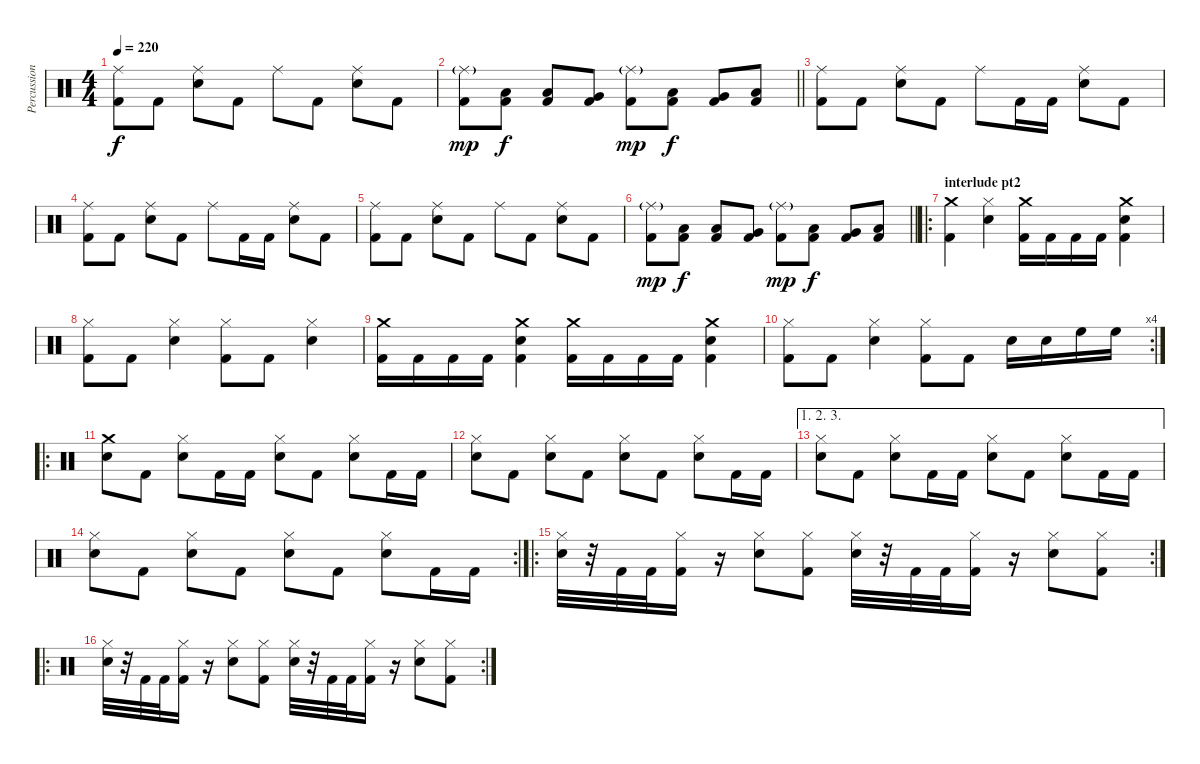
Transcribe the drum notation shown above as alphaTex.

\track ("Percussion" "Percussion") {instrument percussion}
\staff {score}
\articulation defaults
\ts (4 4)
\tempo 220
\clef neutral
\ks c
("Ride (middle)" "Kick (hit) 2").8{dy f} "Kick (hit) 2".8 ("Ride (middle)" "Electric Snare (hit)").8 "Kick (hit) 2".8 "Ride (middle)".8 "Kick (hit) 2".8 ("Ride (middle)" "Electric Snare (hit)").8 "Kick (hit) 2".8 |
\barLineRight lightlight
("Ride (middle)"{g} "Kick (hit) 2").8{dy mp} ("Low Tom (hit)" "Kick (hit) 2").8{dy f} ("Low Tom (hit)" "Kick (hit) 2").8 ("Very Low Tom (hit)" "Kick (hit) 2").8 ("Ride (middle)"{g} "Kick (hit) 2").8{dy mp} ("Low Tom (hit)" "Kick (hit) 2").8{dy f} ("Very Low Tom (hit)" "Kick (hit) 2").8 ("Low Floor Tom (hit)" "Kick (hit) 2").8 |
("Ride (middle)" "Kick (hit) 2").8 "Kick (hit) 2".8 ("Ride (middle)" "Electric Snare (hit)").8 "Kick (hit) 2".8 "Ride (middle)".8 "Kick (hit) 2".16 "Kick (hit) 2".16 ("Ride (middle)" "Electric Snare (hit)").8 "Kick (hit) 2".8 |
("Ride (middle)" "Kick (hit) 2").8 "Kick (hit) 2".8 ("Ride (middle)" "Electric Snare (hit)").8 "Kick (hit) 2".8 "Ride (middle)".8 "Kick (hit) 2".16 "Kick (hit) 2".16 ("Ride (middle)" "Electric Snare (hit)").8 "Kick (hit) 2".8 |
("Ride (middle)" "Kick (hit) 2").8 "Kick (hit) 2".8 ("Ride (middle)" "Electric Snare (hit)").8 "Kick (hit) 2".8 "Ride (middle)".8 "Kick (hit) 2".8 ("Ride (middle)" "Electric Snare (hit)").8 "Kick (hit) 2".8 |
\barLineRight lightlight
("Ride (middle)"{g} "Kick (hit) 2").8{dy mp} ("Low Tom (hit)" "Kick (hit) 2").8{dy f} ("Low Tom (hit)" "Kick (hit) 2").8 ("Very Low Tom (hit)" "Kick (hit) 2").8 ("Ride (middle)"{g} "Kick (hit) 2").8{dy mp} ("Low Tom (hit)" "Kick (hit) 2").8{dy f} ("Very Low Tom (hit)" "Kick (hit) 2").8 ("Low Floor Tom (hit)" "Kick (hit) 2").8 |
\ro
\section ("" "interlude pt2")
("Crash medium (hit)" "Kick (hit) 2").4 ("Hi-Hat (closed)" "Electric Snare (hit)").4 ("Crash medium (hit)" "Kick (hit) 2").16 "Kick (hit) 2".16 "Kick (hit) 2".16 "Kick (hit) 2".16 ("Crash medium (hit)" "Electric Snare (hit)" "Kick (hit) 2").4 |
("Hi-Hat (closed)" "Kick (hit) 2").8 "Kick (hit) 2".8 ("Hi-Hat (closed)" "Electric Snare (hit)").4 ("Hi-Hat (closed)" "Kick (hit) 2").8 "Kick (hit) 2".8 ("Hi-Hat (closed)" "Electric Snare (hit)").4 |
("Crash medium (hit)" "Kick (hit) 2").16 "Kick (hit) 2".16 "Kick (hit) 2".16 "Kick (hit) 2".16 ("Crash medium (hit)" "Electric Snare (hit)" "Kick (hit) 2").4 ("Crash medium (hit)" "Kick (hit) 2").16 "Kick (hit) 2".16 "Kick (hit) 2".16 "Kick (hit) 2".16 ("Crash medium (hit)" "Electric Snare (hit)" "Kick (hit) 2").4 |
\rc 4
("Hi-Hat (closed)" "Kick (hit) 2").8 "Kick (hit) 2".8 ("Hi-Hat (closed)" "Electric Snare (hit)").4 ("Hi-Hat (closed)" "Kick (hit) 2").8 "Kick (hit) 2".8 "Electric Snare (hit)".16 "Electric Snare (hit)".16 "High Floor Tom (hit)".16 "High Floor Tom (hit)".16 |
\ro
("Crash medium (hit)" "Electric Snare (hit)").8 "Kick (hit) 2".8 ("Hi-Hat (closed)" "Electric Snare (hit)").8 "Kick (hit) 2".16 "Kick (hit) 2".16 ("Hi-Hat (closed)" "Electric Snare (hit)").8 "Kick (hit) 2".8 ("Hi-Hat (closed)" "Electric Snare (hit)").8 "Kick (hit) 2".16 "Kick (hit) 2".16 |
("Hi-Hat (closed)" "Electric Snare (hit)").8 "Kick (hit) 2".8 ("Hi-Hat (closed)" "Electric Snare (hit)").8 "Kick (hit) 2".8 ("Hi-Hat (closed)" "Electric Snare (hit)").8 "Kick (hit) 2".8 ("Hi-Hat (closed)" "Electric Snare (hit)").8 "Kick (hit) 2".16 "Kick (hit) 2".16 |
\ae (1 2 3)
("Hi-Hat (closed)" "Electric Snare (hit)").8 "Kick (hit) 2".8 ("Hi-Hat (closed)" "Electric Snare (hit)").8 "Kick (hit) 2".16 "Kick (hit) 2".16 ("Hi-Hat (closed)" "Electric Snare (hit)").8 "Kick (hit) 2".8 ("Hi-Hat (closed)" "Electric Snare (hit)").8 "Kick (hit) 2".16 "Kick (hit) 2".16 |
\rc 2
("Hi-Hat (closed)" "Electric Snare (hit)").8 "Kick (hit) 2".8 ("Hi-Hat (closed)" "Electric Snare (hit)").8 "Kick (hit) 2".8 ("Hi-Hat (closed)" "Electric Snare (hit)").8 "Kick (hit) 2".8 ("Hi-Hat (closed)" "Electric Snare (hit)").8 "Kick (hit) 2".16 "Kick (hit) 2".16 |
\ro
\rc 2
("Hi-Hat (closed)" "Electric Snare (hit)").32 r.32 "Kick (hit) 2".32 "Kick (hit) 2".32 ("Hi-Hat (closed)" "Kick (hit) 2").16 r.16 ("Hi-Hat (closed)" "Electric Snare (hit)").8 ("Hi-Hat (closed)" "Kick (hit) 2").8 ("Hi-Hat (closed)" "Electric Snare (hit)").32 r.32 "Kick (hit) 2".32 "Kick (hit) 2".32 ("Hi-Hat (closed)" "Kick (hit) 2").16 r.16 ("Hi-Hat (closed)" "Electric Snare (hit)").8 ("Hi-Hat (closed)" "Kick (hit) 2").8 |
\ro
\rc 2
("Hi-Hat (closed)" "Electric Snare (hit)").32 r.32 "Kick (hit) 2".32 "Kick (hit) 2".32 ("Hi-Hat (closed)" "Kick (hit) 2").16 r.16 ("Hi-Hat (closed)" "Electric Snare (hit)").8 ("Hi-Hat (closed)" "Kick (hit) 2").8 ("Hi-Hat (closed)" "Electric Snare (hit)").32 r.32 "Kick (hit) 2".32 "Kick (hit) 2".32 ("Hi-Hat (closed)" "Kick (hit) 2").16 r.16 ("Hi-Hat (closed)" "Electric Snare (hit)").8 ("Hi-Hat (closed)" "Kick (hit) 2").8
